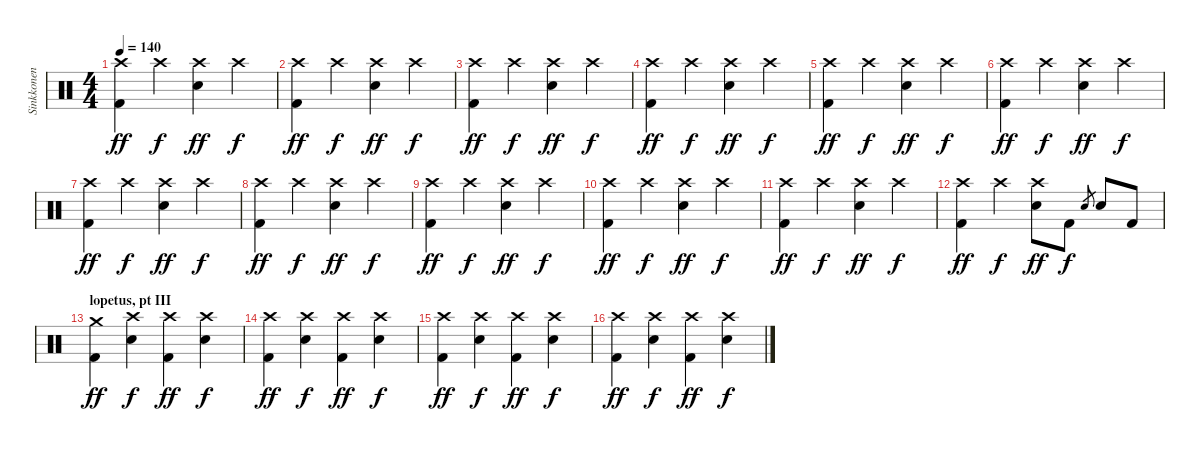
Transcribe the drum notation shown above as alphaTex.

\track ("Sinkkonen" "Sinkkonen") {instrument percussion}
\staff {score}
\articulation defaults
\ts (4 4)
\tempo 140
\clef neutral
\ks c
("Kick (hit) 2" "Crash high (hit)").4{dy ff} "Crash high (hit)".4{dy f} ("Crash high (hit)" "Snare (hit) 2").4{dy ff} "Crash high (hit)".4{dy f} |
("Kick (hit) 2" "Crash high (hit)").4{dy ff} "Crash high (hit)".4{dy f} ("Crash high (hit)" "Snare (hit) 2").4{dy ff} "Crash high (hit)".4{dy f} |
("Kick (hit) 2" "Crash high (hit)").4{dy ff} "Crash high (hit)".4{dy f} ("Crash high (hit)" "Snare (hit) 2").4{dy ff} "Crash high (hit)".4{dy f} |
("Kick (hit) 2" "Crash high (hit)").4{dy ff} "Crash high (hit)".4{dy f} ("Crash high (hit)" "Snare (hit) 2").4{dy ff} "Crash high (hit)".4{dy f} |
("Kick (hit) 2" "Crash high (hit)").4{dy ff} "Crash high (hit)".4{dy f} ("Crash high (hit)" "Snare (hit) 2").4{dy ff} "Crash high (hit)".4{dy f} |
("Kick (hit) 2" "Crash high (hit)").4{dy ff} "Crash high (hit)".4{dy f} ("Crash high (hit)" "Snare (hit) 2").4{dy ff} "Crash high (hit)".4{dy f} |
("Kick (hit) 2" "Crash high (hit)").4{dy ff} "Crash high (hit)".4{dy f} ("Crash high (hit)" "Snare (hit) 2").4{dy ff} "Crash high (hit)".4{dy f} |
("Kick (hit) 2" "Crash high (hit)").4{dy ff} "Crash high (hit)".4{dy f} ("Crash high (hit)" "Snare (hit) 2").4{dy ff} "Crash high (hit)".4{dy f} |
("Kick (hit) 2" "Crash high (hit)").4{dy ff} "Crash high (hit)".4{dy f} ("Crash high (hit)" "Snare (hit) 2").4{dy ff} "Crash high (hit)".4{dy f} |
("Kick (hit) 2" "Crash high (hit)").4{dy ff} "Crash high (hit)".4{dy f} ("Crash high (hit)" "Snare (hit) 2").4{dy ff} "Crash high (hit)".4{dy f} |
("Kick (hit) 2" "Crash high (hit)").4{dy ff} "Crash high (hit)".4{dy f} ("Crash high (hit)" "Snare (hit) 2").4{dy ff} "Crash high (hit)".4{dy f} |
("Kick (hit) 2" "Crash high (hit)").4{dy ff} "Crash high (hit)".4{dy f} ("Crash high (hit)" "Snare (hit) 2").8{dy ff} "Kick (hit) 2".8{dy f} "Snare (hit) 2".8{gr} "Snare (hit) 2".8 "Kick (hit) 2".8 |
\section ("" "lopetus, pt III")
("Kick (hit) 2" "Crash medium (hit)").4{dy ff} ("Crash high (hit)" "Snare (hit) 2").4{dy f} ("Kick (hit) 2" "Crash high (hit)").4{dy ff} ("Crash high (hit)" "Snare (hit) 2").4{dy f} |
("Kick (hit) 2" "Crash high (hit)").4{dy ff} ("Crash high (hit)" "Snare (hit) 2").4{dy f} ("Kick (hit) 2" "Crash high (hit)").4{dy ff} ("Crash high (hit)" "Snare (hit) 2").4{dy f} |
("Kick (hit) 2" "Crash high (hit)").4{dy ff} ("Crash high (hit)" "Snare (hit) 2").4{dy f} ("Kick (hit) 2" "Crash high (hit)").4{dy ff} ("Crash high (hit)" "Snare (hit) 2").4{dy f} |
("Kick (hit) 2" "Crash high (hit)").4{dy ff} ("Crash high (hit)" "Snare (hit) 2").4{dy f} ("Kick (hit) 2" "Crash high (hit)").4{dy ff} ("Crash high (hit)" "Snare (hit) 2").4{dy f}
